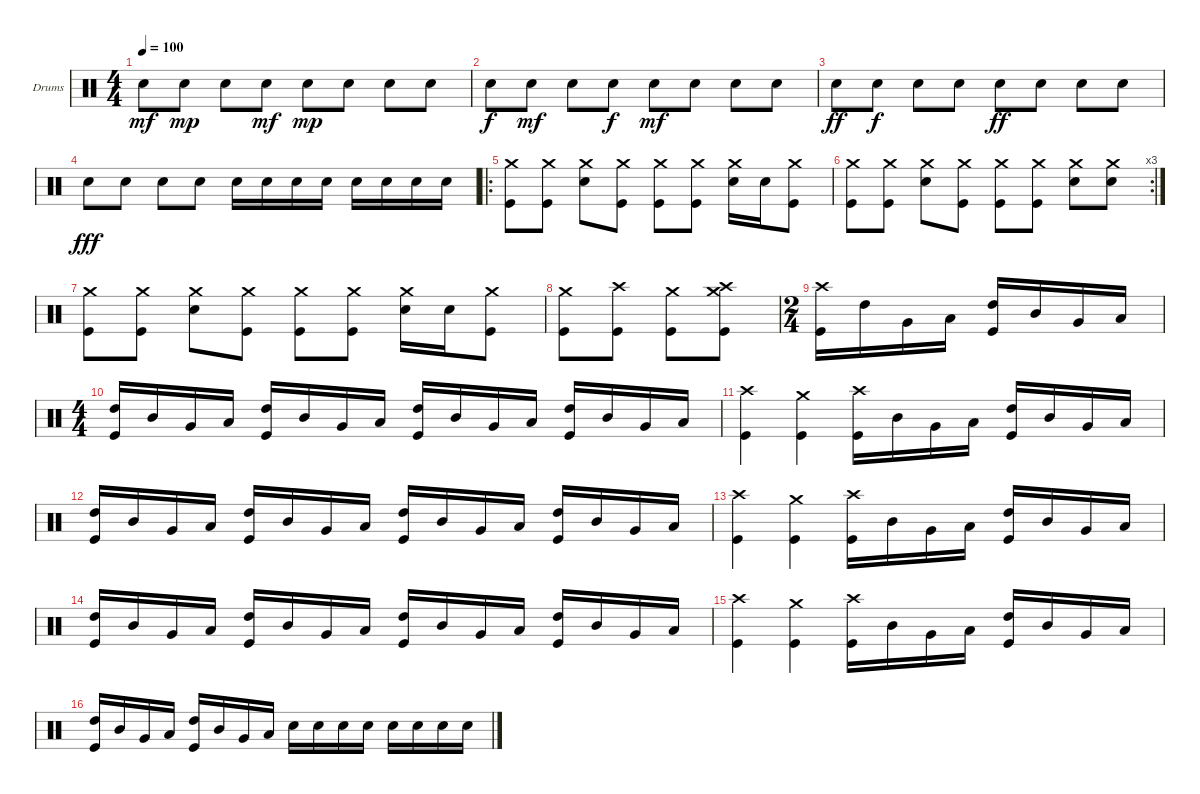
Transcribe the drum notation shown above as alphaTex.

\bracketExtendMode groupsimilarinstruments
\firstSystemTrackNameOrientation horizontal
\otherSystemsTrackNameOrientation horizontal
\track ("Drumkit" "Drums") {instrument percussion}
\staff {score}
\articulation defaults
\ts (4 4)
\tempo 100
\clef neutral
\ks c "Snare (hit) 2".8{dy mf} "Snare (hit) 2".8{dy mp} "Snare (hit) 2".8 "Snare (hit) 2".8{dy mf} "Snare (hit) 2".8{dy mp} "Snare (hit) 2".8 "Snare (hit) 2".8 "Snare (hit) 2".8
|
"Snare (hit) 2".8{dy f} "Snare (hit) 2".8{dy mf} "Snare (hit) 2".8 "Snare (hit) 2".8{dy f} "Snare (hit) 2".8{dy mf} "Snare (hit) 2".8 "Snare (hit) 2".8 "Snare (hit) 2".8 |
"Snare (hit) 2".8{dy ff} "Snare (hit) 2".8{dy f} "Snare (hit) 2".8 "Snare (hit) 2".8 "Snare (hit) 2".8{dy ff} "Snare (hit) 2".8 "Snare (hit) 2".8 "Snare (hit) 2".8 |
"Snare (hit) 2".8{dy fff} "Snare (hit) 2".8 "Snare (hit) 2".8 "Snare (hit) 2".8 "Snare (hit) 2".16 "Snare (hit) 2".16 "Snare (hit) 2".16 "Snare (hit) 2".16 "Snare (hit) 2".16 "Snare (hit) 2".16 "Snare (hit) 2".16 "Snare (hit) 2".16 |
\ro
("Kick (hit)" "Crash medium (hit)").8 ("Kick (hit)" "Crash medium (hit)").8 ("Snare (hit) 2" "Crash medium (hit)").8 ("Kick (hit)" "Crash medium (hit)").8 ("Kick (hit)" "Crash medium (hit)").8 ("Kick (hit)" "Crash medium (hit)").8 ("Snare (hit) 2" "Crash medium (hit)").16 "Snare (hit) 2".16 ("Kick (hit)" "Crash medium (hit)").8 |
\rc 3
("Kick (hit)" "Crash medium (hit)").8 ("Kick (hit)" "Crash medium (hit)").8 ("Snare (hit) 2" "Crash medium (hit)").8 ("Kick (hit)" "Crash medium (hit)").8 ("Kick (hit)" "Crash medium (hit)").8 ("Kick (hit)" "Crash medium (hit)").8 ("Snare (hit) 2" "Crash medium (hit)").8 ("Snare (hit) 2" "Crash medium (hit)").8 |
("Kick (hit)" "Crash medium (hit)").8 ("Kick (hit)" "Crash medium (hit)").8 ("Snare (hit) 2" "Crash medium (hit)").8 ("Kick (hit)" "Crash medium (hit)").8 ("Kick (hit)" "Crash medium (hit)").8 ("Kick (hit)" "Crash medium (hit)").8 ("Snare (hit) 2" "Crash medium (hit)").16 "Snare (hit) 2".16 ("Kick (hit)" "Crash medium (hit)").8 |
("Kick (hit)" "Crash medium (hit)").8 ("Kick (hit)" "Crash high (hit)").8 ("Kick (hit)" "Crash medium (hit)").8 ("Kick (hit)" "Crash high (hit)" "Crash medium (hit)").8 |
\ts (2 4)
("Crash high (hit)" "Kick (hit)").16 "High Tom (hit)".16 "Very Low Tom (hit)".16 "Low Tom (hit)".16 ("High Tom (hit)" "Kick (hit)").16 "Mid Tom (hit)".16 "Very Low Tom (hit)".16 "Low Tom (hit)".16 |
\ts (4 4)
("High Tom (hit)" "Kick (hit)").16 "Mid Tom (hit)".16 "Very Low Tom (hit)".16 "Low Tom (hit)".16 ("High Tom (hit)" "Kick (hit)").16 "Mid Tom (hit)".16 "Very Low Tom (hit)".16 "Low Tom (hit)".16 ("High Tom (hit)" "Kick (hit)").16 "Mid Tom (hit)".16 "Very Low Tom (hit)".16 "Low Tom (hit)".16 ("High Tom (hit)" "Kick (hit)").16 "Mid Tom (hit)".16 "Very Low Tom (hit)".16 "Low Tom (hit)".16 |
("Kick (hit)" "Crash high (hit)").4 ("Crash medium (hit)" "Kick (hit)").4 ("Crash high (hit)" "Kick (hit)").16 "Mid Tom (hit)".16 "Very Low Tom (hit)".16 "Low Tom (hit)".16 ("High Tom (hit)" "Kick (hit)").16 "Mid Tom (hit)".16 "Very Low Tom (hit)".16 "Low Tom (hit)".16 |
("High Tom (hit)" "Kick (hit)").16 "Mid Tom (hit)".16 "Very Low Tom (hit)".16 "Low Tom (hit)".16 ("High Tom (hit)" "Kick (hit)").16 "Mid Tom (hit)".16 "Very Low Tom (hit)".16 "Low Tom (hit)".16 ("High Tom (hit)" "Kick (hit)").16 "Mid Tom (hit)".16 "Very Low Tom (hit)".16 "Low Tom (hit)".16 ("High Tom (hit)" "Kick (hit)").16 "Mid Tom (hit)".16 "Very Low Tom (hit)".16 "Low Tom (hit)".16 |
("Kick (hit)" "Crash high (hit)").4 ("Crash medium (hit)" "Kick (hit)").4 ("Crash high (hit)" "Kick (hit)").16 "Mid Tom (hit)".16 "Very Low Tom (hit)".16 "Low Tom (hit)".16 ("High Tom (hit)" "Kick (hit)").16 "Mid Tom (hit)".16 "Very Low Tom (hit)".16 "Low Tom (hit)".16 |
("High Tom (hit)" "Kick (hit)").16 "Mid Tom (hit)".16 "Very Low Tom (hit)".16 "Low Tom (hit)".16 ("High Tom (hit)" "Kick (hit)").16 "Mid Tom (hit)".16 "Very Low Tom (hit)".16 "Low Tom (hit)".16 ("High Tom (hit)" "Kick (hit)").16 "Mid Tom (hit)".16 "Very Low Tom (hit)".16 "Low Tom (hit)".16 ("High Tom (hit)" "Kick (hit)").16 "Mid Tom (hit)".16 "Very Low Tom (hit)".16 "Low Tom (hit)".16 |
("Kick (hit)" "Crash high (hit)").4 ("Crash medium (hit)" "Kick (hit)").4 ("Crash high (hit)" "Kick (hit)").16 "Mid Tom (hit)".16 "Very Low Tom (hit)".16 "Low Tom (hit)".16 ("High Tom (hit)" "Kick (hit)").16 "Mid Tom (hit)".16 "Very Low Tom (hit)".16 "Low Tom (hit)".16 |
("High Tom (hit)" "Kick (hit)").16 "Mid Tom (hit)".16 "Very Low Tom (hit)".16 "Low Tom (hit)".16 ("High Tom (hit)" "Kick (hit)").16 "Mid Tom (hit)".16 "Very Low Tom (hit)".16 "Low Tom (hit)".16 "Snare (hit) 2".16 "Snare (hit) 2".16 "Snare (hit) 2".16 "Snare (hit) 2".16 "Snare (hit) 2".16 "Snare (hit) 2".16 "Snare (hit) 2".16 "Snare (hit) 2".16
